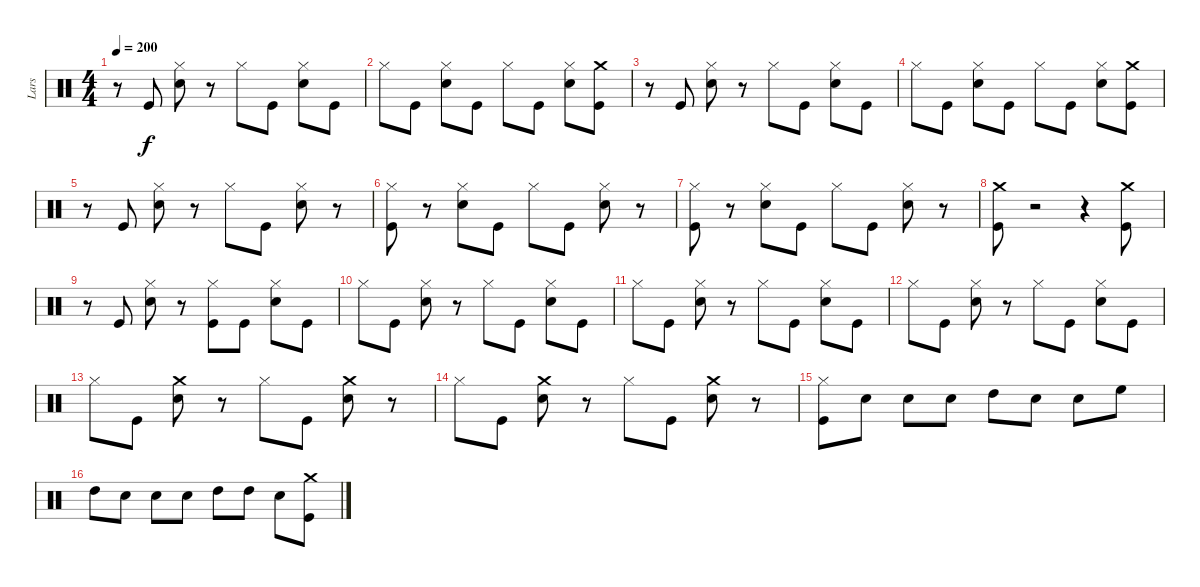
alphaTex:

\track ("Lars" "Lars") {instrument percussion}
\staff {score}
\articulation defaults
\ts (4 4)
\tempo 200
\clef neutral
\ks c
r.8{dy f} "Kick (hit)".8 ("Hi-Hat (closed)" "Snare (hit) 2").8 r.8 "Hi-Hat (closed)".8 "Kick (hit)".8 ("Hi-Hat (closed)" "Snare (hit) 2").8 "Kick (hit)".8 |
"Hi-Hat (closed)".8 "Kick (hit)".8 ("Hi-Hat (closed)" "Snare (hit) 2").8 "Kick (hit)".8 "Hi-Hat (closed)".8 "Kick (hit)".8 ("Hi-Hat (closed)" "Snare (hit) 2").8 ("Crash medium (hit)" "Kick (hit)").8 |
r.8 "Kick (hit)".8 ("Hi-Hat (closed)" "Snare (hit) 2").8 r.8 "Hi-Hat (closed)".8 "Kick (hit)".8 ("Snare (hit) 2" "Hi-Hat (closed)").8 "Kick (hit)".8 |
"Hi-Hat (closed)".8 "Kick (hit)".8 ("Hi-Hat (closed)" "Snare (hit) 2").8 "Kick (hit)".8 "Hi-Hat (closed)".8 "Kick (hit)".8 ("Hi-Hat (closed)" "Snare (hit) 2").8 ("Crash medium (hit)" "Kick (hit)").8 |
r.8 "Kick (hit)".8 ("Hi-Hat (closed)" "Snare (hit) 2").8 r.8 "Hi-Hat (closed)".8 "Kick (hit)".8 ("Hi-Hat (closed)" "Snare (hit) 2").8 r.8 |
("Hi-Hat (closed)" "Kick (hit)").8 r.8 ("Hi-Hat (closed)" "Snare (hit) 2").8 "Kick (hit)".8 "Hi-Hat (closed)".8 "Kick (hit)".8 ("Hi-Hat (closed)" "Snare (hit) 2").8 r.8 |
("Hi-Hat (closed)" "Kick (hit)").8 r.8 ("Hi-Hat (closed)" "Snare (hit) 2").8 "Kick (hit)".8 "Hi-Hat (closed)".8 "Kick (hit)".8 ("Hi-Hat (closed)" "Snare (hit) 2").8 r.8 |
("Crash medium (hit)" "Kick (hit)").8 r.2 r.4 ("Crash medium (hit)" "Kick (hit)").8 |
r.8 "Kick (hit)".8 ("Hi-Hat (closed)" "Snare (hit) 2").8 r.8 ("Kick (hit)" "Hi-Hat (closed)").8 "Kick (hit)".8 ("Hi-Hat (closed)" "Snare (hit) 2").8 "Kick (hit)".8 |
"Hi-Hat (closed)".8 "Kick (hit)".8 ("Hi-Hat (closed)" "Snare (hit) 2").8 r.8 "Hi-Hat (closed)".8 "Kick (hit)".8 ("Hi-Hat (closed)" "Snare (hit) 2").8 "Kick (hit)".8 |
"Hi-Hat (closed)".8 "Kick (hit)".8 ("Hi-Hat (closed)" "Snare (hit) 2").8 r.8 "Hi-Hat (closed)".8 "Kick (hit)".8 ("Hi-Hat (closed)" "Snare (hit) 2").8 "Kick (hit)".8 |
"Hi-Hat (closed)".8 "Kick (hit)".8 ("Hi-Hat (closed)" "Snare (hit) 2").8 r.8 "Hi-Hat (closed)".8 "Kick (hit)".8 ("Hi-Hat (closed)" "Snare (hit) 2").8 "Kick (hit)".8 |
"Hi-Hat (closed)".8 "Kick (hit)".8 ("Crash medium (hit)" "Snare (hit) 2").8 r.8 "Hi-Hat (closed)".8 "Kick (hit)".8 ("Crash medium (hit)" "Snare (hit) 2").8 r.8 |
"Hi-Hat (closed)".8 "Kick (hit)".8 ("Crash medium (hit)" "Snare (hit) 2").8 r.8 "Hi-Hat (closed)".8 "Kick (hit)".8 ("Crash medium (hit)" "Snare (hit) 2").8 r.8 |
("Hi-Hat (closed)" "Kick (hit)").8 "Snare (hit) 2".8 "Snare (hit) 2".8 "Snare (hit) 2".8 "High Tom (hit)".8 "Snare (hit) 2".8 "Snare (hit) 2".8 "High Floor Tom (hit)".8 |
"High Tom (hit)".8 "Snare (hit) 2".8 "Snare (hit) 2".8 "Snare (hit) 2".8 "High Tom (hit)".8 "High Tom (hit)".8 "Snare (hit) 2".8 ("Crash medium (hit)" "Kick (hit)").8
